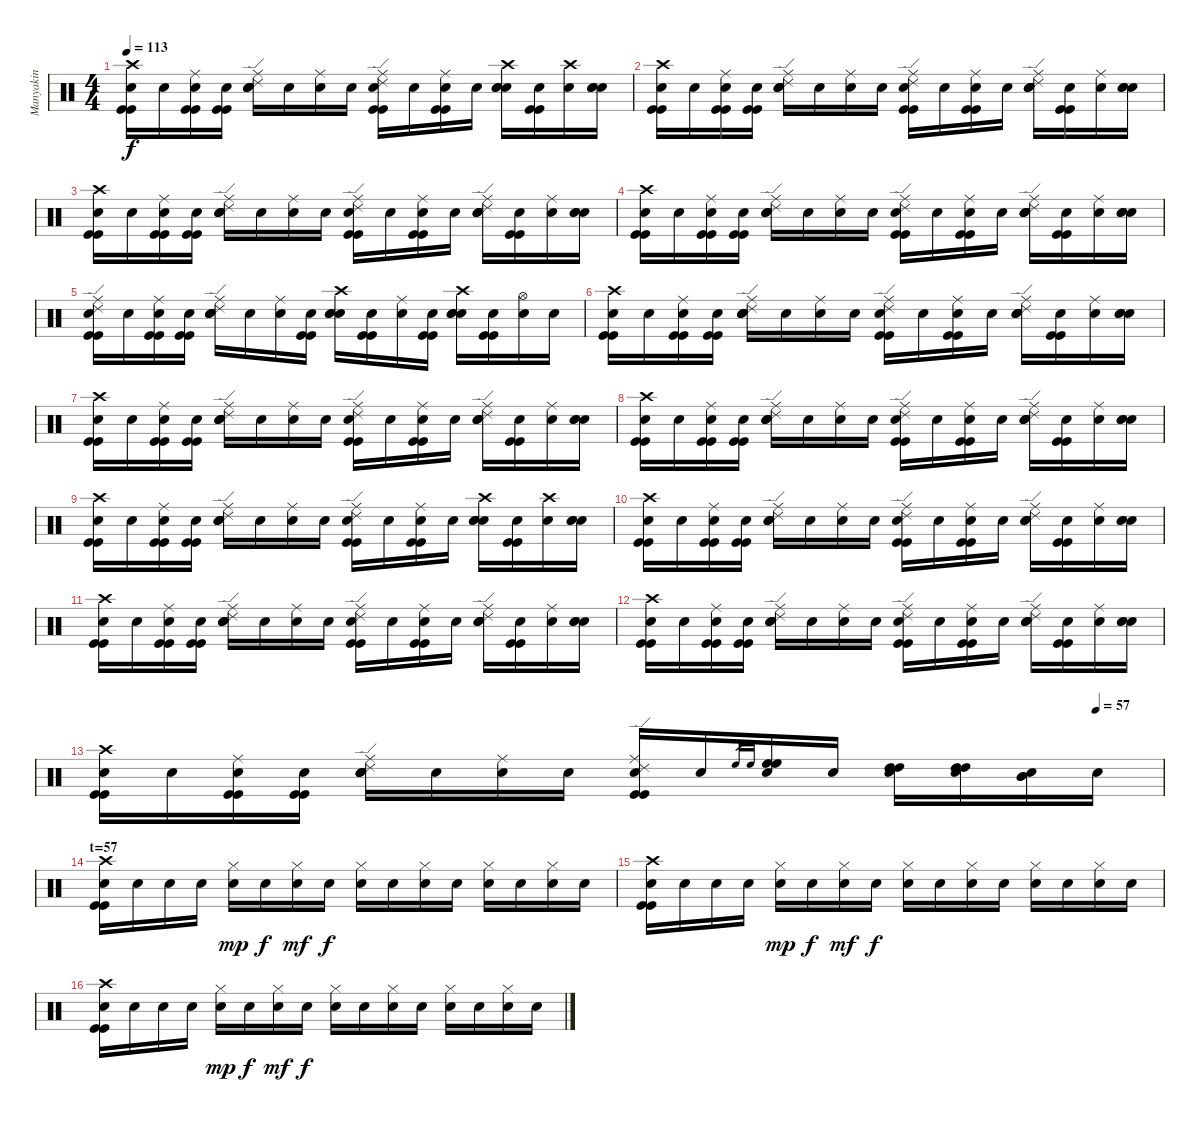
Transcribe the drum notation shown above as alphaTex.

\track ("Manyakin" "Manyakin") {instrument percussion}
\staff {score}
\articulation defaults
\ts (4 4)
\tempo 113
\clef neutral
\ks c
("Crash high (hit)" "Kick (hit)" "Kick (hit)" "Snare (hit)"{x}).16{dy f} "Snare (hit)"{x}.16 ("Ride (middle)" "Kick (hit)" "Kick (hit)" "Snare (hit)"{x}).16 ("Kick (hit)" "Kick (hit)" "Snare (hit)"{x}).16 ("Ride (middle)" "Ride (edge) 2" "Electric Snare (hit)" "Electric Snare (hit)" "Snare (hit)"{x}).16 "Snare (hit)"{x}.16 ("Ride (middle)" "Snare (hit)"{x}).16 "Snare (hit)"{x}.16 ("Ride (middle)" "Ride (edge) 2" "Kick (hit)" "Kick (hit)" "Snare (hit)"{x}).16 "Snare (hit)"{x}.16 ("Ride (middle)" "Kick (hit)" "Kick (hit)" "Snare (hit)"{x}).16 "Snare (hit)"{x}.16 ("Crash high (hit)" "Electric Snare (hit)" "Electric Snare (hit)" "Snare (hit)"{x}).16 ("Kick (hit)" "Kick (hit)" "Snare (hit)"{x}).16 ("Crash high (hit)" "Snare (hit)"{x}).16 ("Electric Snare (hit)" "Electric Snare (hit)" "Snare (hit)"{x}).16 |
("Crash high (hit)" "Kick (hit)" "Kick (hit)" "Snare (hit)"{x}).16 "Snare (hit)"{x}.16 ("Ride (middle)" "Kick (hit)" "Kick (hit)" "Snare (hit)"{x}).16 ("Kick (hit)" "Kick (hit)" "Snare (hit)"{x}).16 ("Ride (middle)" "Ride (edge) 2" "Electric Snare (hit)" "Electric Snare (hit)" "Snare (hit)"{x}).16 "Snare (hit)"{x}.16 ("Ride (middle)" "Snare (hit)"{x}).16 "Snare (hit)"{x}.16 ("Ride (middle)" "Ride (edge) 2" "Kick (hit)" "Kick (hit)" "Snare (hit)"{x}).16 "Snare (hit)"{x}.16 ("Ride (middle)" "Kick (hit)" "Kick (hit)" "Snare (hit)"{x}).16 "Snare (hit)"{x}.16 ("Ride (middle)" "Ride (edge) 2" "Electric Snare (hit)" "Electric Snare (hit)" "Snare (hit)"{x}).16 ("Kick (hit)" "Kick (hit)" "Snare (hit)"{x}).16 ("Ride (middle)" "Snare (hit)"{x}).16 ("Electric Snare (hit)" "Electric Snare (hit)" "Snare (hit)"{x}).16 |
("Crash high (hit)" "Kick (hit)" "Kick (hit)" "Snare (hit)"{x}).16 "Snare (hit)"{x}.16 ("Ride (middle)" "Kick (hit)" "Kick (hit)" "Snare (hit)"{x}).16 ("Kick (hit)" "Kick (hit)" "Snare (hit)"{x}).16 ("Ride (middle)" "Ride (edge) 2" "Electric Snare (hit)" "Electric Snare (hit)" "Snare (hit)"{x}).16 "Snare (hit)"{x}.16 ("Ride (middle)" "Snare (hit)"{x}).16 "Snare (hit)"{x}.16 ("Ride (middle)" "Ride (edge) 2" "Kick (hit)" "Kick (hit)" "Snare (hit)"{x}).16 "Snare (hit)"{x}.16 ("Ride (middle)" "Kick (hit)" "Kick (hit)" "Snare (hit)"{x}).16 "Snare (hit)"{x}.16 ("Ride (middle)" "Ride (edge) 2" "Electric Snare (hit)" "Electric Snare (hit)" "Snare (hit)"{x}).16 ("Kick (hit)" "Kick (hit)" "Snare (hit)"{x}).16 ("Ride (middle)" "Snare (hit)"{x}).16 ("Electric Snare (hit)" "Electric Snare (hit)" "Snare (hit)"{x}).16 |
("Crash high (hit)" "Kick (hit)" "Kick (hit)" "Snare (hit)"{x}).16 "Snare (hit)"{x}.16 ("Ride (middle)" "Kick (hit)" "Kick (hit)" "Snare (hit)"{x}).16 ("Kick (hit)" "Kick (hit)" "Snare (hit)"{x}).16 ("Ride (middle)" "Ride (edge) 2" "Electric Snare (hit)" "Electric Snare (hit)" "Snare (hit)"{x}).16 "Snare (hit)"{x}.16 ("Ride (middle)" "Snare (hit)"{x}).16 "Snare (hit)"{x}.16 ("Ride (middle)" "Ride (edge) 2" "Kick (hit)" "Kick (hit)" "Snare (hit)"{x}).16 "Snare (hit)"{x}.16 ("Ride (middle)" "Kick (hit)" "Kick (hit)" "Snare (hit)"{x}).16 "Snare (hit)"{x}.16 ("Ride (middle)" "Ride (edge) 2" "Electric Snare (hit)" "Electric Snare (hit)" "Snare (hit)"{x}).16 ("Kick (hit)" "Kick (hit)" "Snare (hit)"{x}).16 ("Ride (middle)" "Snare (hit)"{x}).16 ("Electric Snare (hit)" "Electric Snare (hit)" "Snare (hit)"{x}).16 |
("Ride (middle)" "Ride (edge) 2" "Kick (hit)" "Kick (hit)" "Snare (hit)"{x}).16 "Snare (hit)"{x}.16 ("Ride (middle)" "Kick (hit)" "Kick (hit)" "Snare (hit)"{x}).16 ("Kick (hit)" "Kick (hit)" "Snare (hit)"{x}).16 ("Ride (middle)" "Ride (edge) 2" "Electric Snare (hit)" "Electric Snare (hit)" "Snare (hit)"{x}).16 "Snare (hit)"{x}.16 ("Ride (middle)" "Snare (hit)"{x}).16 ("Kick (hit)" "Kick (hit)" "Snare (hit)"{x}).16 ("Crash high (hit)" "Electric Snare (hit)" "Electric Snare (hit)" "Snare (hit)"{x}).16 ("Kick (hit)" "Kick (hit)" "Snare (hit)"{x}).16 ("Ride (middle)" "Snare (hit)"{x}).16 ("Kick (hit)" "Kick (hit)" "Snare (hit)"{x}).16 ("Crash high (hit)" "Electric Snare (hit)" "Electric Snare (hit)" "Snare (hit)"{x}).16 ("Kick (hit)" "Kick (hit)" "Snare (hit)"{x}).16 ("Hi-Hat (open)" "Snare (hit)"{x}).16 "Snare (hit)"{x}.16 |
("Crash high (hit)" "Kick (hit)" "Kick (hit)" "Snare (hit)"{x}).16 "Snare (hit)"{x}.16 ("Ride (middle)" "Kick (hit)" "Kick (hit)" "Snare (hit)"{x}).16 ("Kick (hit)" "Kick (hit)" "Snare (hit)"{x}).16 ("Ride (middle)" "Ride (edge) 2" "Electric Snare (hit)" "Electric Snare (hit)" "Snare (hit)"{x}).16 "Snare (hit)"{x}.16 ("Ride (middle)" "Snare (hit)"{x}).16 "Snare (hit)"{x}.16 ("Ride (middle)" "Ride (edge) 2" "Kick (hit)" "Kick (hit)" "Snare (hit)"{x}).16 "Snare (hit)"{x}.16 ("Ride (middle)" "Kick (hit)" "Kick (hit)" "Snare (hit)"{x}).16 "Snare (hit)"{x}.16 ("Ride (middle)" "Ride (edge) 2" "Electric Snare (hit)" "Electric Snare (hit)" "Snare (hit)"{x}).16 ("Kick (hit)" "Kick (hit)" "Snare (hit)"{x}).16 ("Ride (middle)" "Snare (hit)"{x}).16 ("Electric Snare (hit)" "Electric Snare (hit)" "Snare (hit)"{x}).16 |
("Crash high (hit)" "Kick (hit)" "Kick (hit)" "Snare (hit)"{x}).16 "Snare (hit)"{x}.16 ("Ride (middle)" "Kick (hit)" "Kick (hit)" "Snare (hit)"{x}).16 ("Kick (hit)" "Kick (hit)" "Snare (hit)"{x}).16 ("Ride (middle)" "Ride (edge) 2" "Electric Snare (hit)" "Electric Snare (hit)" "Snare (hit)"{x}).16 "Snare (hit)"{x}.16 ("Ride (middle)" "Snare (hit)"{x}).16 "Snare (hit)"{x}.16 ("Ride (middle)" "Ride (edge) 2" "Kick (hit)" "Kick (hit)" "Snare (hit)"{x}).16 "Snare (hit)"{x}.16 ("Ride (middle)" "Kick (hit)" "Kick (hit)" "Snare (hit)"{x}).16 "Snare (hit)"{x}.16 ("Ride (middle)" "Ride (edge) 2" "Electric Snare (hit)" "Electric Snare (hit)" "Snare (hit)"{x}).16 ("Kick (hit)" "Kick (hit)" "Snare (hit)"{x}).16 ("Ride (middle)" "Snare (hit)"{x}).16 ("Electric Snare (hit)" "Electric Snare (hit)" "Snare (hit)"{x}).16 |
("Crash high (hit)" "Kick (hit)" "Kick (hit)" "Snare (hit)"{x}).16 "Snare (hit)"{x}.16 ("Ride (middle)" "Kick (hit)" "Kick (hit)" "Snare (hit)"{x}).16 ("Kick (hit)" "Kick (hit)" "Snare (hit)"{x}).16 ("Ride (middle)" "Ride (edge) 2" "Electric Snare (hit)" "Electric Snare (hit)" "Snare (hit)"{x}).16 "Snare (hit)"{x}.16 ("Ride (middle)" "Snare (hit)"{x}).16 "Snare (hit)"{x}.16 ("Ride (middle)" "Ride (edge) 2" "Kick (hit)" "Kick (hit)" "Snare (hit)"{x}).16 "Snare (hit)"{x}.16 ("Ride (middle)" "Kick (hit)" "Kick (hit)" "Snare (hit)"{x}).16 "Snare (hit)"{x}.16 ("Ride (middle)" "Ride (edge) 2" "Electric Snare (hit)" "Electric Snare (hit)" "Snare (hit)"{x}).16 ("Kick (hit)" "Kick (hit)" "Snare (hit)"{x}).16 ("Ride (middle)" "Snare (hit)"{x}).16 ("Electric Snare (hit)" "Electric Snare (hit)" "Snare (hit)"{x}).16 |
("Crash high (hit)" "Kick (hit)" "Kick (hit)" "Snare (hit)"{x}).16 "Snare (hit)"{x}.16 ("Ride (middle)" "Kick (hit)" "Kick (hit)" "Snare (hit)"{x}).16 ("Kick (hit)" "Kick (hit)" "Snare (hit)"{x}).16 ("Ride (middle)" "Ride (edge) 2" "Electric Snare (hit)" "Electric Snare (hit)" "Snare (hit)"{x}).16 "Snare (hit)"{x}.16 ("Ride (middle)" "Snare (hit)"{x}).16 "Snare (hit)"{x}.16 ("Ride (middle)" "Ride (edge) 2" "Kick (hit)" "Kick (hit)" "Snare (hit)"{x}).16 "Snare (hit)"{x}.16 ("Ride (middle)" "Kick (hit)" "Kick (hit)" "Snare (hit)"{x}).16 "Snare (hit)"{x}.16 ("Crash high (hit)" "Electric Snare (hit)" "Electric Snare (hit)" "Snare (hit)"{x}).16 ("Kick (hit)" "Kick (hit)" "Snare (hit)"{x}).16 ("Crash high (hit)" "Snare (hit)"{x}).16 ("Electric Snare (hit)" "Electric Snare (hit)" "Snare (hit)"{x}).16 |
("Crash high (hit)" "Kick (hit)" "Kick (hit)" "Snare (hit)"{x}).16 "Snare (hit)"{x}.16 ("Ride (middle)" "Kick (hit)" "Kick (hit)" "Snare (hit)"{x}).16 ("Kick (hit)" "Kick (hit)" "Snare (hit)"{x}).16 ("Ride (middle)" "Ride (edge) 2" "Electric Snare (hit)" "Electric Snare (hit)" "Snare (hit)"{x}).16 "Snare (hit)"{x}.16 ("Ride (middle)" "Snare (hit)"{x}).16 "Snare (hit)"{x}.16 ("Ride (middle)" "Ride (edge) 2" "Kick (hit)" "Kick (hit)" "Snare (hit)"{x}).16 "Snare (hit)"{x}.16 ("Ride (middle)" "Kick (hit)" "Kick (hit)" "Snare (hit)"{x}).16 "Snare (hit)"{x}.16 ("Ride (middle)" "Ride (edge) 2" "Electric Snare (hit)" "Electric Snare (hit)" "Snare (hit)"{x}).16 ("Kick (hit)" "Kick (hit)" "Snare (hit)"{x}).16 ("Ride (middle)" "Snare (hit)"{x}).16 ("Electric Snare (hit)" "Electric Snare (hit)" "Snare (hit)"{x}).16 |
("Crash high (hit)" "Kick (hit)" "Kick (hit)" "Snare (hit)"{x}).16 "Snare (hit)"{x}.16 ("Ride (middle)" "Kick (hit)" "Kick (hit)" "Snare (hit)"{x}).16 ("Kick (hit)" "Kick (hit)" "Snare (hit)"{x}).16 ("Ride (middle)" "Ride (edge) 2" "Electric Snare (hit)" "Electric Snare (hit)" "Snare (hit)"{x}).16 "Snare (hit)"{x}.16 ("Ride (middle)" "Snare (hit)"{x}).16 "Snare (hit)"{x}.16 ("Ride (middle)" "Ride (edge) 2" "Kick (hit)" "Kick (hit)" "Snare (hit)"{x}).16 "Snare (hit)"{x}.16 ("Ride (middle)" "Kick (hit)" "Kick (hit)" "Snare (hit)"{x}).16 "Snare (hit)"{x}.16 ("Ride (middle)" "Ride (edge) 2" "Electric Snare (hit)" "Electric Snare (hit)" "Snare (hit)"{x}).16 ("Kick (hit)" "Kick (hit)" "Snare (hit)"{x}).16 ("Ride (middle)" "Snare (hit)"{x}).16 ("Electric Snare (hit)" "Electric Snare (hit)" "Snare (hit)"{x}).16 |
("Crash high (hit)" "Kick (hit)" "Kick (hit)" "Snare (hit)"{x}).16 "Snare (hit)"{x}.16 ("Ride (middle)" "Kick (hit)" "Kick (hit)" "Snare (hit)"{x}).16 ("Kick (hit)" "Kick (hit)" "Snare (hit)"{x}).16 ("Ride (middle)" "Ride (edge) 2" "Electric Snare (hit)" "Electric Snare (hit)" "Snare (hit)"{x}).16 "Snare (hit)"{x}.16 ("Ride (middle)" "Snare (hit)"{x}).16 "Snare (hit)"{x}.16 ("Ride (middle)" "Ride (edge) 2" "Kick (hit)" "Kick (hit)" "Snare (hit)"{x}).16 "Snare (hit)"{x}.16 ("Ride (middle)" "Kick (hit)" "Kick (hit)" "Snare (hit)"{x}).16 "Snare (hit)"{x}.16 ("Ride (middle)" "Ride (edge) 2" "Electric Snare (hit)" "Electric Snare (hit)" "Snare (hit)"{x}).16 ("Kick (hit)" "Kick (hit)" "Snare (hit)"{x}).16 ("Ride (middle)" "Snare (hit)"{x}).16 ("Electric Snare (hit)" "Electric Snare (hit)" "Snare (hit)"{x}).16 |
\tempo (57 0.9375)
("Crash high (hit)" "Kick (hit)" "Kick (hit)" "Snare (hit)"{x}).16 "Snare (hit)"{x}.16 ("Ride (middle)" "Kick (hit)" "Kick (hit)" "Snare (hit)"{x}).16 ("Kick (hit)" "Kick (hit)" "Snare (hit)"{x}).16 ("Ride (middle)" "Ride (edge) 2" "Electric Snare (hit)" "Electric Snare (hit)" "Snare (hit)"{x}).16 "Snare (hit)"{x}.16 ("Ride (middle)" "Snare (hit)"{x}).16 "Snare (hit)"{x}.16 ("Ride (middle)" "Ride (edge) 2" "Kick (hit)" "Kick (hit)" "Snare (hit)"{x}).16 "Snare (hit)"{x}.16 "High Floor Tom (hit)".16{gr} "High Floor Tom (hit)".16{gr} ("High Floor Tom (hit)" "High Floor Tom (hit)" "Snare (hit)"{x}).16 "Snare (hit)"{x}.16 ("High Tom (hit)" "High Tom (hit)" "Snare (hit)"{x}).16 ("High Tom (hit)" "High Tom (hit)" "Snare (hit)"{x}).16 ("Mid Tom (hit)" "Mid Tom (hit)" "Snare (hit)"{x}).16 "Snare (hit)"{x}.16 |
\section ("" "t=57")
("Crash high (hit)" "Kick (hit)" "Kick (hit)" "Snare (hit)"{x}).16 "Snare (hit)"{x}.16 "Snare (hit)"{x}.16 "Snare (hit)"{x}.16 ("Hi-Hat (closed)" "Snare (hit)"{x}).16{dy mp} "Snare (hit)"{x}.16{dy f} ("Hi-Hat (closed)" "Snare (hit)"{x}).16{dy mf} "Snare (hit)"{x}.16{dy f} ("Hi-Hat (closed)" "Snare (hit)"{x}).16 "Snare (hit)"{x}.16 ("Hi-Hat (closed)" "Snare (hit)"{x}).16 "Snare (hit)"{x}.16 ("Hi-Hat (closed)" "Snare (hit)"{x}).16 "Snare (hit)"{x}.16 ("Hi-Hat (closed)" "Snare (hit)"{x}).16 "Snare (hit)"{x}.16 |
("Crash high (hit)" "Kick (hit)" "Kick (hit)" "Snare (hit)"{x}).16 "Snare (hit)"{x}.16 "Snare (hit)"{x}.16 "Snare (hit)"{x}.16 ("Hi-Hat (closed)" "Snare (hit)"{x}).16{dy mp} "Snare (hit)"{x}.16{dy f} ("Hi-Hat (closed)" "Snare (hit)"{x}).16{dy mf} "Snare (hit)"{x}.16{dy f} ("Hi-Hat (closed)" "Snare (hit)"{x}).16 "Snare (hit)"{x}.16 ("Hi-Hat (closed)" "Snare (hit)"{x}).16 "Snare (hit)"{x}.16 ("Hi-Hat (closed)" "Snare (hit)"{x}).16 "Snare (hit)"{x}.16 ("Hi-Hat (closed)" "Snare (hit)"{x}).16 "Snare (hit)"{x}.16 |
("Crash high (hit)" "Kick (hit)" "Kick (hit)" "Snare (hit)"{x}).16 "Snare (hit)"{x}.16 "Snare (hit)"{x}.16 "Snare (hit)"{x}.16 ("Hi-Hat (closed)" "Snare (hit)"{x}).16{dy mp} "Snare (hit)"{x}.16{dy f} ("Hi-Hat (closed)" "Snare (hit)"{x}).16{dy mf} "Snare (hit)"{x}.16{dy f} ("Hi-Hat (closed)" "Snare (hit)"{x}).16 "Snare (hit)"{x}.16 ("Hi-Hat (closed)" "Snare (hit)"{x}).16 "Snare (hit)"{x}.16 ("Hi-Hat (closed)" "Snare (hit)"{x}).16 "Snare (hit)"{x}.16 ("Hi-Hat (closed)" "Snare (hit)"{x}).16 "Snare (hit)"{x}.16
